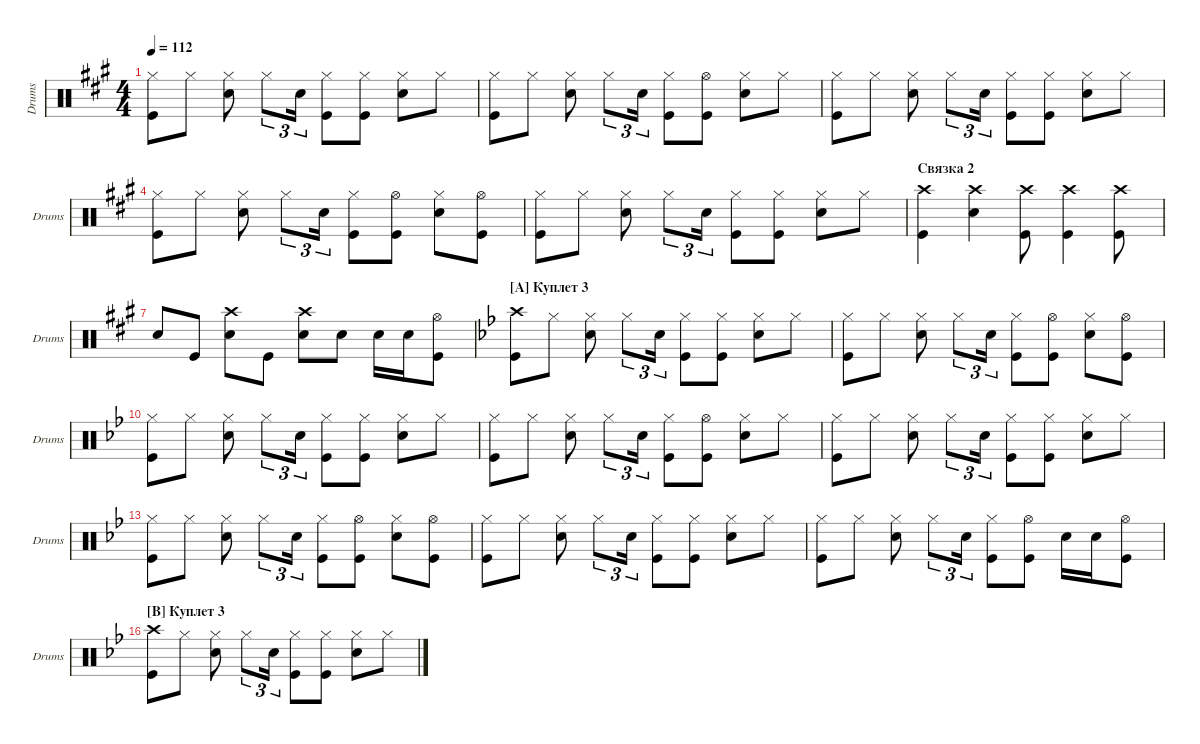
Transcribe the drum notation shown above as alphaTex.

\defaultSystemsLayout 4
\hideDynamics
\bracketExtendMode groupsimilarinstruments
\singleTrackTrackNamePolicy allsystems
\multiTrackTrackNamePolicy allsystems
\otherSystemsTrackNameOrientation horizontal
\defaultBarNumberDisplay FirstOfSystem
\track ("Drums" "Drums") {instrument percussion}
\staff {score}
\articulation defaults
\ts (4 4)
\tempo 112
\clef neutral
\ks f#minor
("Kick (hit)" "Hi-Hat (closed)").8{dy mf} "Hi-Hat (closed)".8 ("Hi-Hat (closed)" "Snare (hit) 2").8 "Hi-Hat (closed)".8{tu (3 2)} "Snare (hit) 2".16{tu (3 2)} ("Hi-Hat (closed)" "Kick (hit)").8 ("Hi-Hat (closed)" "Kick (hit)").8 ("Hi-Hat (closed)" "Snare (hit) 2").8 "Hi-Hat (closed)".8 |
("Kick (hit)" "Hi-Hat (closed)").8 "Hi-Hat (closed)".8 ("Hi-Hat (closed)" "Snare (hit) 2").8 "Hi-Hat (closed)".8{tu (3 2)} "Snare (hit) 2".16{tu (3 2)} ("Hi-Hat (closed)" "Kick (hit)").8 ("Hi-Hat (open)" "Kick (hit)").8 ("Hi-Hat (closed)" "Snare (hit) 2").8 "Hi-Hat (closed)".8 |
\scale
0.15758 ("Kick (hit)" "Hi-Hat (closed)").8 "Hi-Hat (closed)".8 ("Hi-Hat (closed)" "Snare (hit) 2").8 "Hi-Hat (closed)".8{tu (3 2)} "Snare (hit) 2".16{tu (3 2)} ("Hi-Hat (closed)" "Kick (hit)").8 ("Hi-Hat (closed)" "Kick (hit)").8 ("Hi-Hat (closed)" "Snare (hit) 2").8 "Hi-Hat (closed)".8 |
\scale
0.132314 ("Kick (hit)" "Hi-Hat (closed)").8 "Hi-Hat (closed)".8 ("Hi-Hat (closed)" "Snare (hit) 2").8 "Hi-Hat (closed)".8{tu (3 2)} "Snare (hit) 2".16{tu (3 2)} ("Hi-Hat (closed)" "Kick (hit)").8 ("Hi-Hat (open)" "Kick (hit)").8 ("Hi-Hat (closed)" "Snare (hit) 2").8 ("Hi-Hat (open)" "Kick (hit)").8 |
\scale
0.132314 ("Kick (hit)" "Hi-Hat (closed)").8 "Hi-Hat (closed)".8 ("Hi-Hat (closed)" "Snare (hit) 2").8 "Hi-Hat (closed)".8{tu (3 2)} "Snare (hit) 2".16{tu (3 2)} ("Hi-Hat (closed)" "Kick (hit)").8 ("Hi-Hat (closed)" "Kick (hit)").8 ("Hi-Hat (closed)" "Snare (hit) 2").8 "Hi-Hat (closed)".8 |
\section ("" "Связка 2")
\scale
0.0671543 ("Kick (hit)" "Crash high (hit)").4 ("Crash high (hit)" "Snare (hit) 2").4 ("Kick (hit)" "Crash high (hit)").8 ("Kick (hit)" "Crash high (hit)").4 ("Kick (hit)" "Crash high (hit)").8 |
\scale
0.126838 "Snare (hit) 2".8 "Kick (hit)".8 ("Snare (hit) 2" "Crash high (hit)").8 "Kick (hit)".8 ("Snare (hit) 2" "Crash high (hit)").8 "Snare (hit) 2".8 "Snare (hit) 2".16 "Snare (hit) 2".16 ("Kick (hit)" "Hi-Hat (open)").8 |
\section ("A" "Куплет 3")
\scale
0.135312
\ks gminor
("Kick (hit)" "Crash high (hit)").8 "Hi-Hat (closed)".8 ("Hi-Hat (closed)" "Snare (hit) 2").8 "Hi-Hat (closed)".8{tu (3 2)} "Snare (hit) 2".16{tu (3 2)} ("Hi-Hat (closed)" "Kick (hit)").8 ("Hi-Hat (closed)" "Kick (hit)").8 ("Hi-Hat (closed)" "Snare (hit) 2").8 "Hi-Hat (closed)".8 |
\scale
0.116112 ("Kick (hit)" "Hi-Hat (closed)").8 "Hi-Hat (closed)".8 ("Hi-Hat (closed)" "Snare (hit) 2").8 "Hi-Hat (closed)".8{tu (3 2)} "Snare (hit) 2".16{tu (3 2)} ("Hi-Hat (closed)" "Kick (hit)").8 ("Hi-Hat (open)" "Kick (hit)").8 ("Hi-Hat (closed)" "Snare (hit) 2").8 ("Hi-Hat (open)" "Kick (hit)").8 |
\scale
0.132314 ("Kick (hit)" "Hi-Hat (closed)").8 "Hi-Hat (closed)".8 ("Hi-Hat (closed)" "Snare (hit) 2").8 "Hi-Hat (closed)".8{tu (3 2)} "Snare (hit) 2".16{tu (3 2)} ("Hi-Hat (closed)" "Kick (hit)").8 ("Hi-Hat (closed)" "Kick (hit)").8 ("Hi-Hat (closed)" "Snare (hit) 2").8 "Hi-Hat (closed)".8 |
("Kick (hit)" "Hi-Hat (closed)").8 "Hi-Hat (closed)".8 ("Hi-Hat (closed)" "Snare (hit) 2").8 "Hi-Hat (closed)".8{tu (3 2)} "Snare (hit) 2".16{tu (3 2)} ("Hi-Hat (closed)" "Kick (hit)").8 ("Hi-Hat (open)" "Kick (hit)").8 ("Hi-Hat (closed)" "Snare (hit) 2").8 "Hi-Hat (closed)".8 |
("Kick (hit)" "Hi-Hat (closed)").8 "Hi-Hat (closed)".8 ("Hi-Hat (closed)" "Snare (hit) 2").8 "Hi-Hat (closed)".8{tu (3 2)} "Snare (hit) 2".16{tu (3 2)} ("Hi-Hat (closed)" "Kick (hit)").8 ("Hi-Hat (closed)" "Kick (hit)").8 ("Hi-Hat (closed)" "Snare (hit) 2").8 "Hi-Hat (closed)".8 |
("Kick (hit)" "Hi-Hat (closed)").8 "Hi-Hat (closed)".8 ("Hi-Hat (closed)" "Snare (hit) 2").8 "Hi-Hat (closed)".8{tu (3 2)} "Snare (hit) 2".16{tu (3 2)} ("Hi-Hat (closed)" "Kick (hit)").8 ("Hi-Hat (open)" "Kick (hit)").8 ("Hi-Hat (closed)" "Snare (hit) 2").8 ("Hi-Hat (open)" "Kick (hit)").8 |
("Kick (hit)" "Hi-Hat (closed)").8 "Hi-Hat (closed)".8 ("Hi-Hat (closed)" "Snare (hit) 2").8 "Hi-Hat (closed)".8{tu (3 2)} "Snare (hit) 2".16{tu (3 2)} ("Hi-Hat (closed)" "Kick (hit)").8 ("Hi-Hat (closed)" "Kick (hit)").8 ("Hi-Hat (closed)" "Snare (hit) 2").8 "Hi-Hat (closed)".8 |
("Kick (hit)" "Hi-Hat (closed)").8 "Hi-Hat (closed)".8 ("Hi-Hat (closed)" "Snare (hit) 2").8 "Hi-Hat (closed)".8{tu (3 2)} "Snare (hit) 2".16{tu (3 2)} ("Hi-Hat (closed)" "Kick (hit)").8 ("Hi-Hat (open)" "Kick (hit)").8 "Snare (hit) 2".16 "Snare (hit) 2".16 ("Hi-Hat (open)" "Kick (hit)").8 |
\section ("B" "Куплет 3")
("Kick (hit)" "Crash high (hit)").8 "Hi-Hat (closed)".8 ("Hi-Hat (closed)" "Snare (hit) 2").8 "Hi-Hat (closed)".8{tu (3 2)} "Snare (hit) 2".16{tu (3 2)} ("Hi-Hat (closed)" "Kick (hit)").8 ("Hi-Hat (closed)" "Kick (hit)").8 ("Hi-Hat (closed)" "Snare (hit) 2").8 "Hi-Hat (closed)".8
